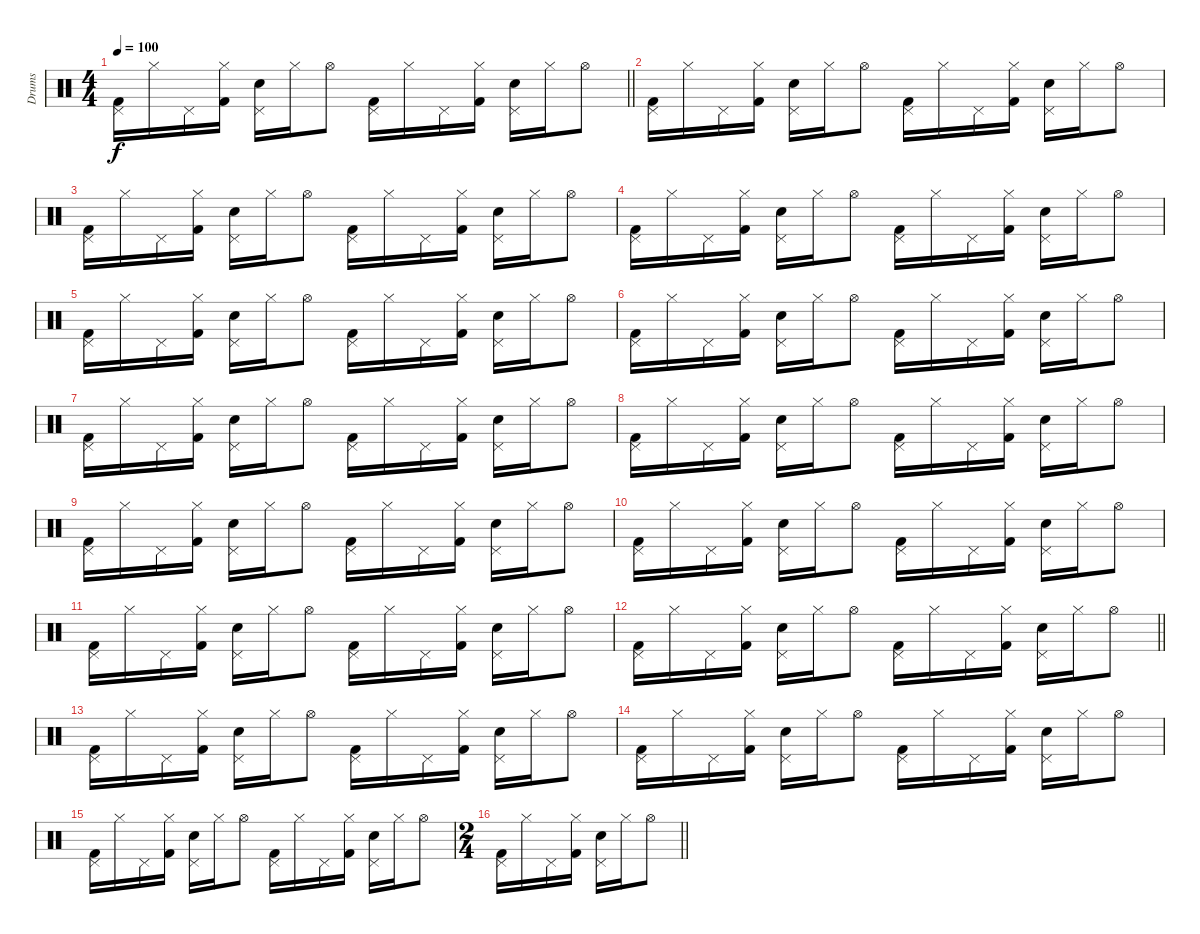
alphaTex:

\track ("Drums" "Drums") {instrument percussion}
\staff {score}
\articulation defaults
\ts (4 4)
\tempo 100
\clef neutral
\barLineRight lightlight
\ks c
("Pedal Hi-Hat (hit)" "Kick (hit) 2").16{dy f} "Hi-Hat (closed)".16 "Pedal Hi-Hat (hit)".16 ("Hi-Hat (closed)" "Kick (hit) 2").16 ("Pedal Hi-Hat (hit)" "Electric Snare (hit)").16 "Hi-Hat (closed)".16 "Hi-Hat (open)".8 ("Pedal Hi-Hat (hit)" "Kick (hit) 2").16 "Hi-Hat (closed)".16 "Pedal Hi-Hat (hit)".16 ("Hi-Hat (closed)" "Kick (hit) 2").16 ("Pedal Hi-Hat (hit)" "Electric Snare (hit)").16 "Hi-Hat (closed)".16 "Hi-Hat (open)".8 |
("Pedal Hi-Hat (hit)" "Kick (hit) 2").16 "Hi-Hat (closed)".16 "Pedal Hi-Hat (hit)".16 ("Hi-Hat (closed)" "Kick (hit) 2").16 ("Pedal Hi-Hat (hit)" "Electric Snare (hit)").16 "Hi-Hat (closed)".16 "Hi-Hat (open)".8 ("Pedal Hi-Hat (hit)" "Kick (hit) 2").16 "Hi-Hat (closed)".16 "Pedal Hi-Hat (hit)".16 ("Hi-Hat (closed)" "Kick (hit) 2").16 ("Pedal Hi-Hat (hit)" "Electric Snare (hit)").16 "Hi-Hat (closed)".16 "Hi-Hat (open)".8 |
("Pedal Hi-Hat (hit)" "Kick (hit) 2").16 "Hi-Hat (closed)".16 "Pedal Hi-Hat (hit)".16 ("Hi-Hat (closed)" "Kick (hit) 2").16 ("Pedal Hi-Hat (hit)" "Electric Snare (hit)").16 "Hi-Hat (closed)".16 "Hi-Hat (open)".8 ("Pedal Hi-Hat (hit)" "Kick (hit) 2").16 "Hi-Hat (closed)".16 "Pedal Hi-Hat (hit)".16 ("Hi-Hat (closed)" "Kick (hit) 2").16 ("Pedal Hi-Hat (hit)" "Electric Snare (hit)").16 "Hi-Hat (closed)".16 "Hi-Hat (open)".8 |
("Pedal Hi-Hat (hit)" "Kick (hit) 2").16 "Hi-Hat (closed)".16 "Pedal Hi-Hat (hit)".16 ("Hi-Hat (closed)" "Kick (hit) 2").16 ("Pedal Hi-Hat (hit)" "Electric Snare (hit)").16 "Hi-Hat (closed)".16 "Hi-Hat (open)".8 ("Pedal Hi-Hat (hit)" "Kick (hit) 2").16 "Hi-Hat (closed)".16 "Pedal Hi-Hat (hit)".16 ("Hi-Hat (closed)" "Kick (hit) 2").16 ("Pedal Hi-Hat (hit)" "Electric Snare (hit)").16 "Hi-Hat (closed)".16 "Hi-Hat (open)".8 |
("Pedal Hi-Hat (hit)" "Kick (hit) 2").16 "Hi-Hat (closed)".16 "Pedal Hi-Hat (hit)".16 ("Hi-Hat (closed)" "Kick (hit) 2").16 ("Pedal Hi-Hat (hit)" "Electric Snare (hit)").16 "Hi-Hat (closed)".16 "Hi-Hat (open)".8 ("Pedal Hi-Hat (hit)" "Kick (hit) 2").16 "Hi-Hat (closed)".16 "Pedal Hi-Hat (hit)".16 ("Hi-Hat (closed)" "Kick (hit) 2").16 ("Pedal Hi-Hat (hit)" "Electric Snare (hit)").16 "Hi-Hat (closed)".16 "Hi-Hat (open)".8 |
("Pedal Hi-Hat (hit)" "Kick (hit) 2").16 "Hi-Hat (closed)".16 "Pedal Hi-Hat (hit)".16 ("Hi-Hat (closed)" "Kick (hit) 2").16 ("Pedal Hi-Hat (hit)" "Electric Snare (hit)").16 "Hi-Hat (closed)".16 "Hi-Hat (open)".8 ("Pedal Hi-Hat (hit)" "Kick (hit) 2").16 "Hi-Hat (closed)".16 "Pedal Hi-Hat (hit)".16 ("Hi-Hat (closed)" "Kick (hit) 2").16 ("Pedal Hi-Hat (hit)" "Electric Snare (hit)").16 "Hi-Hat (closed)".16 "Hi-Hat (open)".8 |
("Pedal Hi-Hat (hit)" "Kick (hit) 2").16 "Hi-Hat (closed)".16 "Pedal Hi-Hat (hit)".16 ("Hi-Hat (closed)" "Kick (hit) 2").16 ("Pedal Hi-Hat (hit)" "Electric Snare (hit)").16 "Hi-Hat (closed)".16 "Hi-Hat (open)".8 ("Pedal Hi-Hat (hit)" "Kick (hit) 2").16 "Hi-Hat (closed)".16 "Pedal Hi-Hat (hit)".16 ("Hi-Hat (closed)" "Kick (hit) 2").16 ("Pedal Hi-Hat (hit)" "Electric Snare (hit)").16 "Hi-Hat (closed)".16 "Hi-Hat (open)".8 |
("Pedal Hi-Hat (hit)" "Kick (hit) 2").16 "Hi-Hat (closed)".16 "Pedal Hi-Hat (hit)".16 ("Hi-Hat (closed)" "Kick (hit) 2").16 ("Pedal Hi-Hat (hit)" "Electric Snare (hit)").16 "Hi-Hat (closed)".16 "Hi-Hat (open)".8 ("Pedal Hi-Hat (hit)" "Kick (hit) 2").16 "Hi-Hat (closed)".16 "Pedal Hi-Hat (hit)".16 ("Hi-Hat (closed)" "Kick (hit) 2").16 ("Pedal Hi-Hat (hit)" "Electric Snare (hit)").16 "Hi-Hat (closed)".16 "Hi-Hat (open)".8 |
("Pedal Hi-Hat (hit)" "Kick (hit) 2").16 "Hi-Hat (closed)".16 "Pedal Hi-Hat (hit)".16 ("Hi-Hat (closed)" "Kick (hit) 2").16 ("Pedal Hi-Hat (hit)" "Electric Snare (hit)").16 "Hi-Hat (closed)".16 "Hi-Hat (open)".8 ("Pedal Hi-Hat (hit)" "Kick (hit) 2").16 "Hi-Hat (closed)".16 "Pedal Hi-Hat (hit)".16 ("Hi-Hat (closed)" "Kick (hit) 2").16 ("Pedal Hi-Hat (hit)" "Electric Snare (hit)").16 "Hi-Hat (closed)".16 "Hi-Hat (open)".8 |
("Pedal Hi-Hat (hit)" "Kick (hit) 2").16 "Hi-Hat (closed)".16 "Pedal Hi-Hat (hit)".16 ("Hi-Hat (closed)" "Kick (hit) 2").16 ("Pedal Hi-Hat (hit)" "Electric Snare (hit)").16 "Hi-Hat (closed)".16 "Hi-Hat (open)".8 ("Pedal Hi-Hat (hit)" "Kick (hit) 2").16 "Hi-Hat (closed)".16 "Pedal Hi-Hat (hit)".16 ("Hi-Hat (closed)" "Kick (hit) 2").16 ("Pedal Hi-Hat (hit)" "Electric Snare (hit)").16 "Hi-Hat (closed)".16 "Hi-Hat (open)".8 |
("Pedal Hi-Hat (hit)" "Kick (hit) 2").16 "Hi-Hat (closed)".16 "Pedal Hi-Hat (hit)".16 ("Hi-Hat (closed)" "Kick (hit) 2").16 ("Pedal Hi-Hat (hit)" "Electric Snare (hit)").16 "Hi-Hat (closed)".16 "Hi-Hat (open)".8 ("Pedal Hi-Hat (hit)" "Kick (hit) 2").16 "Hi-Hat (closed)".16 "Pedal Hi-Hat (hit)".16 ("Hi-Hat (closed)" "Kick (hit) 2").16 ("Pedal Hi-Hat (hit)" "Electric Snare (hit)").16 "Hi-Hat (closed)".16 "Hi-Hat (open)".8 |
\barLineRight lightlight
("Pedal Hi-Hat (hit)" "Kick (hit) 2").16 "Hi-Hat (closed)".16 "Pedal Hi-Hat (hit)".16 ("Hi-Hat (closed)" "Kick (hit) 2").16 ("Pedal Hi-Hat (hit)" "Electric Snare (hit)").16 "Hi-Hat (closed)".16 "Hi-Hat (open)".8 ("Pedal Hi-Hat (hit)" "Kick (hit) 2").16 "Hi-Hat (closed)".16 "Pedal Hi-Hat (hit)".16 ("Hi-Hat (closed)" "Kick (hit) 2").16 ("Pedal Hi-Hat (hit)" "Electric Snare (hit)").16 "Hi-Hat (closed)".16 "Hi-Hat (open)".8 |
("Pedal Hi-Hat (hit)" "Kick (hit) 2").16 "Hi-Hat (closed)".16 "Pedal Hi-Hat (hit)".16 ("Hi-Hat (closed)" "Kick (hit) 2").16 ("Pedal Hi-Hat (hit)" "Electric Snare (hit)").16 "Hi-Hat (closed)".16 "Hi-Hat (open)".8 ("Pedal Hi-Hat (hit)" "Kick (hit) 2").16 "Hi-Hat (closed)".16 "Pedal Hi-Hat (hit)".16 ("Hi-Hat (closed)" "Kick (hit) 2").16 ("Pedal Hi-Hat (hit)" "Electric Snare (hit)").16 "Hi-Hat (closed)".16 "Hi-Hat (open)".8 |
("Pedal Hi-Hat (hit)" "Kick (hit) 2").16 "Hi-Hat (closed)".16 "Pedal Hi-Hat (hit)".16 ("Hi-Hat (closed)" "Kick (hit) 2").16 ("Pedal Hi-Hat (hit)" "Electric Snare (hit)").16 "Hi-Hat (closed)".16 "Hi-Hat (open)".8 ("Pedal Hi-Hat (hit)" "Kick (hit) 2").16 "Hi-Hat (closed)".16 "Pedal Hi-Hat (hit)".16 ("Hi-Hat (closed)" "Kick (hit) 2").16 ("Pedal Hi-Hat (hit)" "Electric Snare (hit)").16 "Hi-Hat (closed)".16 "Hi-Hat (open)".8 |
("Pedal Hi-Hat (hit)" "Kick (hit) 2").16 "Hi-Hat (closed)".16 "Pedal Hi-Hat (hit)".16 ("Hi-Hat (closed)" "Kick (hit) 2").16 ("Pedal Hi-Hat (hit)" "Electric Snare (hit)").16 "Hi-Hat (closed)".16 "Hi-Hat (open)".8 ("Pedal Hi-Hat (hit)" "Kick (hit) 2").16 "Hi-Hat (closed)".16 "Pedal Hi-Hat (hit)".16 ("Hi-Hat (closed)" "Kick (hit) 2").16 ("Pedal Hi-Hat (hit)" "Electric Snare (hit)").16 "Hi-Hat (closed)".16 "Hi-Hat (open)".8 |
\ts (2 4)
\barLineRight lightlight
("Pedal Hi-Hat (hit)" "Kick (hit) 2").16 "Hi-Hat (closed)".16 "Pedal Hi-Hat (hit)".16 ("Hi-Hat (closed)" "Kick (hit) 2").16 ("Pedal Hi-Hat (hit)" "Electric Snare (hit)").16 "Hi-Hat (closed)".16 "Hi-Hat (open)".8
